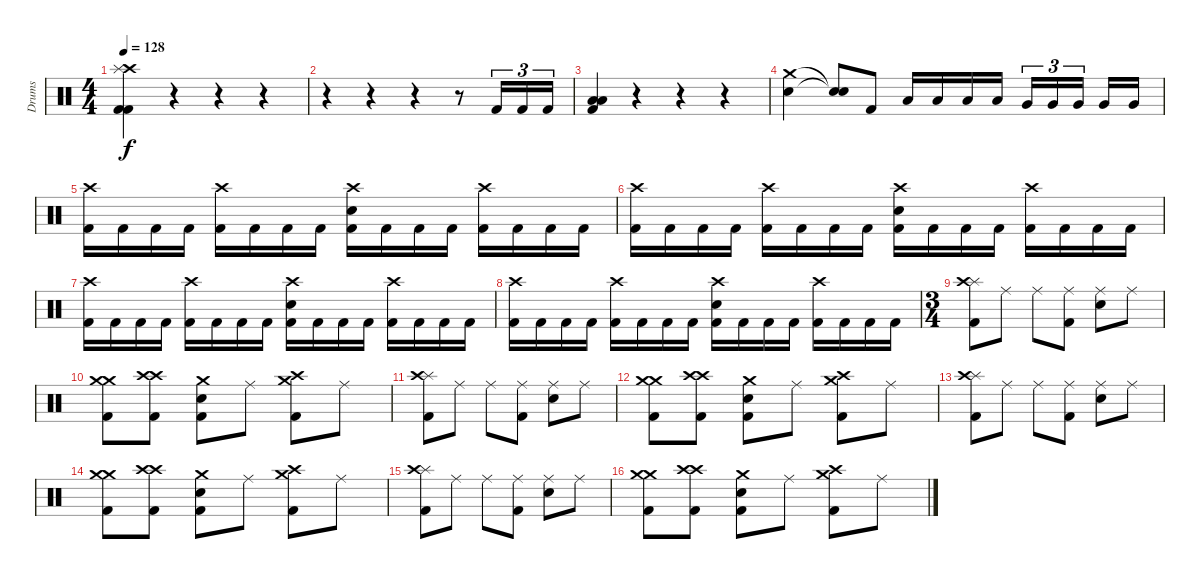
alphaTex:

\track ("Drums" "Drums") {instrument percussion}
\staff {score}
\articulation defaults
\ts (4 4)
\tempo 128
\clef neutral
\ks c
("Crash high (hit)" "Splash (hit)" "Kick (hit) 2" "Kick (hit) 2").4{dy f} r.4 r.4 r.4 |
r.4 r.4 r.4 r.8 "Kick (hit) 2".16{tu (3 2)} "Kick (hit) 2".16{tu (3 2)} "Kick (hit) 2".16{tu (3 2)} |
("Low Floor Tom (hit)" "Low Floor Tom (hit)" "Kick (hit) 2").4 r.4 r.4 r.4 |
("Crash medium (hit)" "Snare (hit) 2").4 ("Snare (hit)"{t} "Snare (hit)"{t}).8 "Kick (hit) 2".8 "Low Tom (hit)".16 "Low Tom (hit)".16 "Low Tom (hit)".16 "Low Tom (hit)".16 "Very Low Tom (hit)".16{tu (3 2)} "Very Low Tom (hit)".16{tu (3 2)} "Very Low Tom (hit)".16{tu (3 2)} "Very Low Tom (hit)".16 "Very Low Tom (hit)".16 |
("Crash high (hit)" "Kick (hit) 2").16 "Kick (hit) 2".16 "Kick (hit) 2".16 "Kick (hit) 2".16 ("Crash high (hit)" "Kick (hit) 2").16 "Kick (hit) 2".16 "Kick (hit) 2".16 "Kick (hit) 2".16 ("Crash high (hit)" "Snare (hit) 2" "Kick (hit) 2").16 "Kick (hit) 2".16 "Kick (hit) 2".16 "Kick (hit) 2".16 ("Crash high (hit)" "Kick (hit) 2").16 "Kick (hit) 2".16 "Kick (hit) 2".16 "Kick (hit) 2".16 |
("Crash high (hit)" "Kick (hit) 2").16 "Kick (hit) 2".16 "Kick (hit) 2".16 "Kick (hit) 2".16 ("Crash high (hit)" "Kick (hit) 2").16 "Kick (hit) 2".16 "Kick (hit) 2".16 "Kick (hit) 2".16 ("Crash high (hit)" "Snare (hit) 2" "Kick (hit) 2").16 "Kick (hit) 2".16 "Kick (hit) 2".16 "Kick (hit) 2".16 ("Crash high (hit)" "Kick (hit) 2").16 "Kick (hit) 2".16 "Kick (hit) 2".16 "Kick (hit) 2".16 |
("Crash high (hit)" "Kick (hit) 2").16 "Kick (hit) 2".16 "Kick (hit) 2".16 "Kick (hit) 2".16 ("Crash high (hit)" "Kick (hit) 2").16 "Kick (hit) 2".16 "Kick (hit) 2".16 "Kick (hit) 2".16 ("Crash high (hit)" "Snare (hit) 2" "Kick (hit) 2").16 "Kick (hit) 2".16 "Kick (hit) 2".16 "Kick (hit) 2".16 ("Crash high (hit)" "Kick (hit) 2").16 "Kick (hit) 2".16 "Kick (hit) 2".16 "Kick (hit) 2".16 |
("Crash high (hit)" "Kick (hit) 2").16 "Kick (hit) 2".16 "Kick (hit) 2".16 "Kick (hit) 2".16 ("Crash high (hit)" "Kick (hit) 2").16 "Kick (hit) 2".16 "Kick (hit) 2".16 "Kick (hit) 2".16 ("Crash high (hit)" "Snare (hit) 2" "Kick (hit) 2").16 "Kick (hit) 2".16 "Kick (hit) 2".16 "Kick (hit) 2".16 ("Crash high (hit)" "Kick (hit) 2").16 "Kick (hit) 2".16 "Kick (hit) 2".16 "Kick (hit) 2".16 |
\ts (3 4)
("Splash (hit)" "Crash high (hit)" "Kick (hit) 2").8 "Ride (middle)".8 "Ride (middle)".8 ("Ride (middle)" "Kick (hit) 2").8 ("Ride (middle)" "Snare (hit) 2").8 "Ride (middle)".8 |
("Crash medium (hit)" "Crash medium (hit)" "Kick (hit) 2").8 ("Crash high (hit)" "Crash high (hit)" "Kick (hit) 2").8 ("Crash medium (hit)" "Snare (hit) 2" "Kick (hit) 2").8 "Ride (middle)".8 ("Crash medium (hit)" "Crash high (hit)" "Kick (hit) 2").8 "Ride (middle)".8 |
("Splash (hit)" "Crash high (hit)" "Kick (hit) 2").8 "Ride (middle)".8 "Ride (middle)".8 ("Ride (middle)" "Kick (hit) 2").8 ("Ride (middle)" "Snare (hit) 2").8 "Ride (middle)".8 |
("Crash medium (hit)" "Crash medium (hit)" "Kick (hit) 2").8 ("Crash high (hit)" "Crash high (hit)" "Kick (hit) 2").8 ("Crash medium (hit)" "Snare (hit) 2" "Kick (hit) 2").8 "Ride (middle)".8 ("Crash medium (hit)" "Crash high (hit)" "Kick (hit) 2").8 "Ride (middle)".8 |
("Splash (hit)" "Crash high (hit)" "Kick (hit) 2").8 "Ride (middle)".8 "Ride (middle)".8 ("Ride (middle)" "Kick (hit) 2").8 ("Ride (middle)" "Snare (hit) 2").8 "Ride (middle)".8 |
("Crash medium (hit)" "Crash medium (hit)" "Kick (hit) 2").8 ("Crash high (hit)" "Crash high (hit)" "Kick (hit) 2").8 ("Crash medium (hit)" "Snare (hit) 2" "Kick (hit) 2").8 "Ride (middle)".8 ("Crash medium (hit)" "Crash high (hit)" "Kick (hit) 2").8 "Ride (middle)".8 |
("Splash (hit)" "Crash high (hit)" "Kick (hit) 2").8 "Ride (middle)".8 "Ride (middle)".8 ("Ride (middle)" "Kick (hit) 2").8 ("Ride (middle)" "Snare (hit) 2").8 "Ride (middle)".8 |
("Crash medium (hit)" "Crash medium (hit)" "Kick (hit) 2").8 ("Crash high (hit)" "Crash high (hit)" "Kick (hit) 2").8 ("Crash medium (hit)" "Snare (hit) 2" "Kick (hit) 2").8 "Ride (middle)".8 ("Crash medium (hit)" "Crash high (hit)" "Kick (hit) 2").8 "Ride (middle)".8
